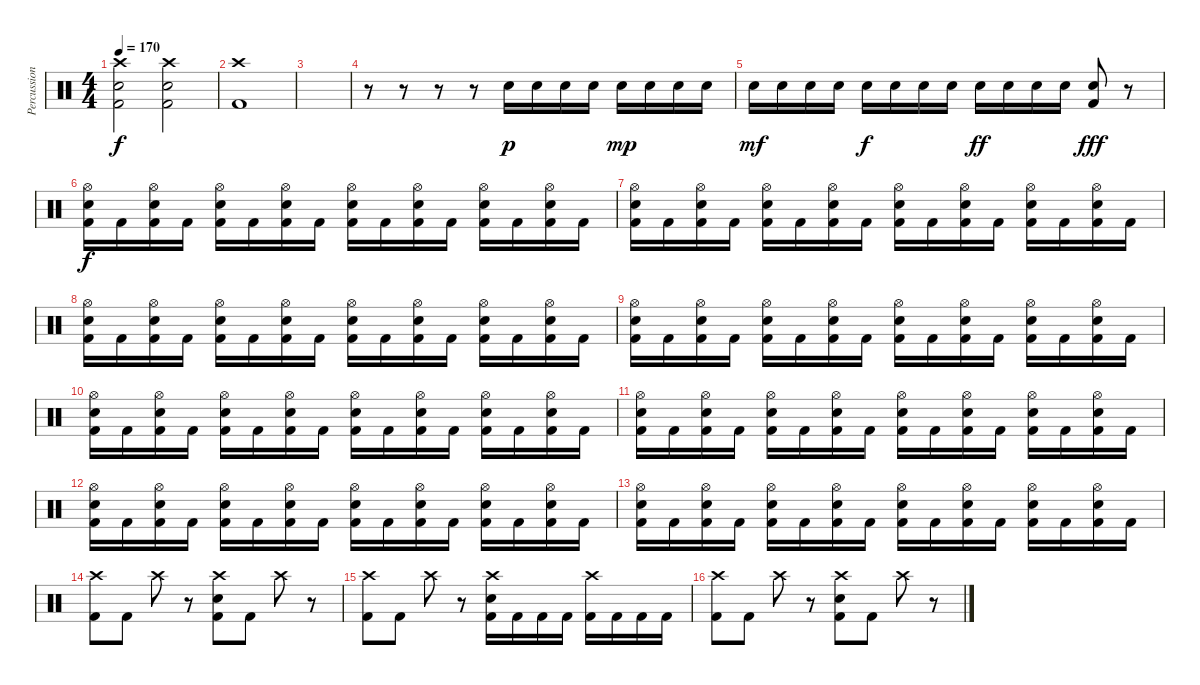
\track ("Percussion" "Percussion") {instrument percussion}
\staff {score}
\articulation defaults
\ts (4 4)
\tempo 170
\clef neutral
\ks c
("Crash high (hit)" "Electric Snare (hit)" "Kick (hit) 2").2{dy f} ("Crash high (hit)" "Electric Snare (hit)" "Kick (hit) 2").2 |
("Crash high (hit)" "Kick (hit) 2").1 |
|
r.8 r.8 r.8 r.8 "Electric Snare (hit)".16{dy p} "Electric Snare (hit)".16 "Electric Snare (hit)".16 "Electric Snare (hit)".16 "Electric Snare (hit)".16{dy mp} "Electric Snare (hit)".16 "Electric Snare (hit)".16 "Electric Snare (hit)".16 |
"Electric Snare (hit)".16{dy mf} "Electric Snare (hit)".16 "Electric Snare (hit)".16 "Electric Snare (hit)".16 "Electric Snare (hit)".16{dy f} "Electric Snare (hit)".16 "Electric Snare (hit)".16 "Electric Snare (hit)".16 "Electric Snare (hit)".16{dy ff} "Electric Snare (hit)".16 "Electric Snare (hit)".16 "Electric Snare (hit)".16 ("Electric Snare (hit)" "Kick (hit) 2").8{dy fff} r.8 |
("Hi-Hat (open)" "Electric Snare (hit)" "Kick (hit) 2").16{dy f} "Kick (hit) 2".16 ("Hi-Hat (open)" "Electric Snare (hit)" "Kick (hit) 2").16 "Kick (hit) 2".16 ("Hi-Hat (open)" "Electric Snare (hit)" "Kick (hit) 2").16 "Kick (hit) 2".16 ("Hi-Hat (open)" "Electric Snare (hit)" "Kick (hit) 2").16 "Kick (hit) 2".16 ("Hi-Hat (open)" "Electric Snare (hit)" "Kick (hit) 2").16 "Kick (hit) 2".16 ("Hi-Hat (open)" "Electric Snare (hit)" "Kick (hit) 2").16 "Kick (hit) 2".16 ("Hi-Hat (open)" "Electric Snare (hit)" "Kick (hit) 2").16 "Kick (hit) 2".16 ("Hi-Hat (open)" "Electric Snare (hit)" "Kick (hit) 2").16 "Kick (hit) 2".16 |
("Hi-Hat (open)" "Electric Snare (hit)" "Kick (hit) 2").16 "Kick (hit) 2".16 ("Hi-Hat (open)" "Electric Snare (hit)" "Kick (hit) 2").16 "Kick (hit) 2".16 ("Hi-Hat (open)" "Electric Snare (hit)" "Kick (hit) 2").16 "Kick (hit) 2".16 ("Hi-Hat (open)" "Electric Snare (hit)" "Kick (hit) 2").16 "Kick (hit) 2".16 ("Hi-Hat (open)" "Electric Snare (hit)" "Kick (hit) 2").16 "Kick (hit) 2".16 ("Hi-Hat (open)" "Electric Snare (hit)" "Kick (hit) 2").16 "Kick (hit) 2".16 ("Hi-Hat (open)" "Electric Snare (hit)" "Kick (hit) 2").16 "Kick (hit) 2".16 ("Hi-Hat (open)" "Electric Snare (hit)" "Kick (hit) 2").16 "Kick (hit) 2".16 |
("Hi-Hat (open)" "Electric Snare (hit)" "Kick (hit) 2").16 "Kick (hit) 2".16 ("Hi-Hat (open)" "Electric Snare (hit)" "Kick (hit) 2").16 "Kick (hit) 2".16 ("Hi-Hat (open)" "Electric Snare (hit)" "Kick (hit) 2").16 "Kick (hit) 2".16 ("Hi-Hat (open)" "Electric Snare (hit)" "Kick (hit) 2").16 "Kick (hit) 2".16 ("Hi-Hat (open)" "Electric Snare (hit)" "Kick (hit) 2").16 "Kick (hit) 2".16 ("Hi-Hat (open)" "Electric Snare (hit)" "Kick (hit) 2").16 "Kick (hit) 2".16 ("Hi-Hat (open)" "Electric Snare (hit)" "Kick (hit) 2").16 "Kick (hit) 2".16 ("Hi-Hat (open)" "Electric Snare (hit)" "Kick (hit) 2").16 "Kick (hit) 2".16 |
("Hi-Hat (open)" "Electric Snare (hit)" "Kick (hit) 2").16 "Kick (hit) 2".16 ("Hi-Hat (open)" "Electric Snare (hit)" "Kick (hit) 2").16 "Kick (hit) 2".16 ("Hi-Hat (open)" "Electric Snare (hit)" "Kick (hit) 2").16 "Kick (hit) 2".16 ("Hi-Hat (open)" "Electric Snare (hit)" "Kick (hit) 2").16 "Kick (hit) 2".16 ("Hi-Hat (open)" "Electric Snare (hit)" "Kick (hit) 2").16 "Kick (hit) 2".16 ("Hi-Hat (open)" "Electric Snare (hit)" "Kick (hit) 2").16 "Kick (hit) 2".16 ("Hi-Hat (open)" "Electric Snare (hit)" "Kick (hit) 2").16 "Kick (hit) 2".16 ("Hi-Hat (open)" "Electric Snare (hit)" "Kick (hit) 2").16 "Kick (hit) 2".16 |
("Hi-Hat (open)" "Electric Snare (hit)" "Kick (hit) 2").16 "Kick (hit) 2".16 ("Hi-Hat (open)" "Electric Snare (hit)" "Kick (hit) 2").16 "Kick (hit) 2".16 ("Hi-Hat (open)" "Electric Snare (hit)" "Kick (hit) 2").16 "Kick (hit) 2".16 ("Hi-Hat (open)" "Electric Snare (hit)" "Kick (hit) 2").16 "Kick (hit) 2".16 ("Hi-Hat (open)" "Electric Snare (hit)" "Kick (hit) 2").16 "Kick (hit) 2".16 ("Hi-Hat (open)" "Electric Snare (hit)" "Kick (hit) 2").16 "Kick (hit) 2".16 ("Hi-Hat (open)" "Electric Snare (hit)" "Kick (hit) 2").16 "Kick (hit) 2".16 ("Hi-Hat (open)" "Electric Snare (hit)" "Kick (hit) 2").16 "Kick (hit) 2".16 |
("Hi-Hat (open)" "Electric Snare (hit)" "Kick (hit) 2").16 "Kick (hit) 2".16 ("Hi-Hat (open)" "Electric Snare (hit)" "Kick (hit) 2").16 "Kick (hit) 2".16 ("Hi-Hat (open)" "Electric Snare (hit)" "Kick (hit) 2").16 "Kick (hit) 2".16 ("Hi-Hat (open)" "Electric Snare (hit)" "Kick (hit) 2").16 "Kick (hit) 2".16 ("Hi-Hat (open)" "Electric Snare (hit)" "Kick (hit) 2").16 "Kick (hit) 2".16 ("Hi-Hat (open)" "Electric Snare (hit)" "Kick (hit) 2").16 "Kick (hit) 2".16 ("Hi-Hat (open)" "Electric Snare (hit)" "Kick (hit) 2").16 "Kick (hit) 2".16 ("Hi-Hat (open)" "Electric Snare (hit)" "Kick (hit) 2").16 "Kick (hit) 2".16 |
("Hi-Hat (open)" "Electric Snare (hit)" "Kick (hit) 2").16 "Kick (hit) 2".16 ("Hi-Hat (open)" "Electric Snare (hit)" "Kick (hit) 2").16 "Kick (hit) 2".16 ("Hi-Hat (open)" "Electric Snare (hit)" "Kick (hit) 2").16 "Kick (hit) 2".16 ("Hi-Hat (open)" "Electric Snare (hit)" "Kick (hit) 2").16 "Kick (hit) 2".16 ("Hi-Hat (open)" "Electric Snare (hit)" "Kick (hit) 2").16 "Kick (hit) 2".16 ("Hi-Hat (open)" "Electric Snare (hit)" "Kick (hit) 2").16 "Kick (hit) 2".16 ("Hi-Hat (open)" "Electric Snare (hit)" "Kick (hit) 2").16 "Kick (hit) 2".16 ("Hi-Hat (open)" "Electric Snare (hit)" "Kick (hit) 2").16 "Kick (hit) 2".16 |
("Hi-Hat (open)" "Electric Snare (hit)" "Kick (hit) 2").16 "Kick (hit) 2".16 ("Hi-Hat (open)" "Electric Snare (hit)" "Kick (hit) 2").16 "Kick (hit) 2".16 ("Hi-Hat (open)" "Electric Snare (hit)" "Kick (hit) 2").16 "Kick (hit) 2".16 ("Hi-Hat (open)" "Electric Snare (hit)" "Kick (hit) 2").16 "Kick (hit) 2".16 ("Hi-Hat (open)" "Electric Snare (hit)" "Kick (hit) 2").16 "Kick (hit) 2".16 ("Hi-Hat (open)" "Electric Snare (hit)" "Kick (hit) 2").16 "Kick (hit) 2".16 ("Hi-Hat (open)" "Electric Snare (hit)" "Kick (hit) 2").16 "Kick (hit) 2".16 ("Hi-Hat (open)" "Electric Snare (hit)" "Kick (hit) 2").16 "Kick (hit) 2".16 |
("Crash high (hit)" "Kick (hit) 2").8 "Kick (hit) 2".8 "Crash high (hit)".8 r.8 ("Crash high (hit)" "Electric Snare (hit)" "Kick (hit) 2").8 "Kick (hit) 2".8 "Crash high (hit)".8 r.8 |
("Crash high (hit)" "Kick (hit) 2").8 "Kick (hit) 2".8 "Crash high (hit)".8 r.8 ("Crash high (hit)" "Electric Snare (hit)" "Kick (hit) 2").16 "Kick (hit) 2".16 "Kick (hit) 2".16 "Kick (hit) 2".16 ("Crash high (hit)" "Kick (hit) 2").16 "Kick (hit) 2".16 "Kick (hit) 2".16 "Kick (hit) 2".16 |
("Crash high (hit)" "Kick (hit) 2").8 "Kick (hit) 2".8 "Crash high (hit)".8 r.8 ("Crash high (hit)" "Electric Snare (hit)" "Kick (hit) 2").8 "Kick (hit) 2".8 "Crash high (hit)".8 r.8
